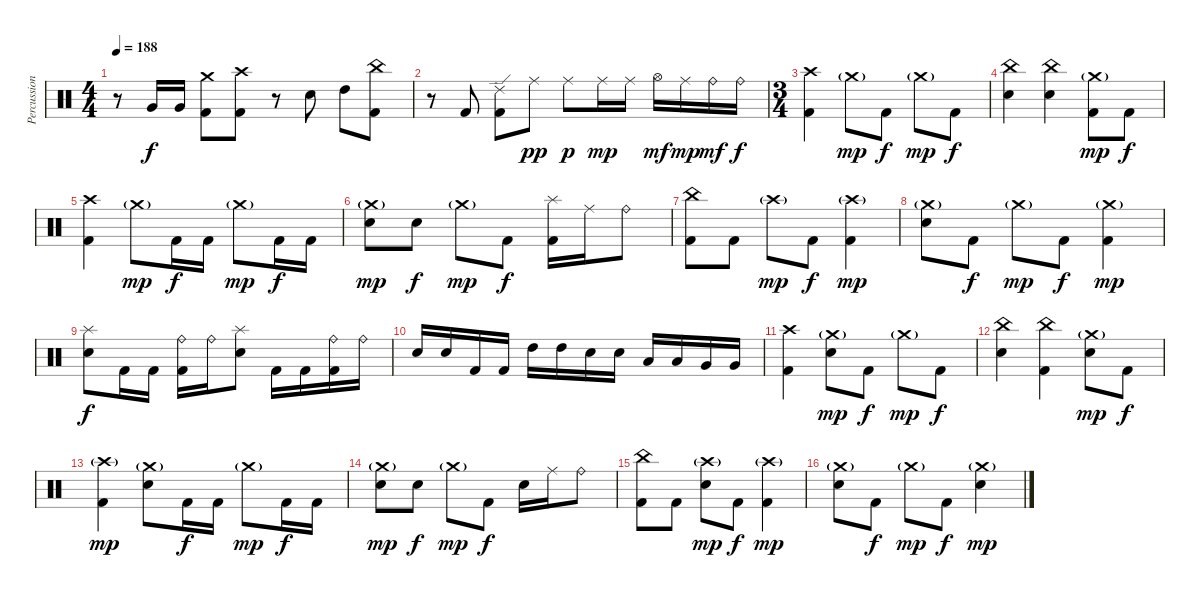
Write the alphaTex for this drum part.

\track ("Percussion" "Percussion") {instrument percussion}
\staff {score}
\articulation defaults
\ts (4 4)
\tempo 188
\clef neutral
\ks c
r.8{dy f} "Very Low Tom (hit)".16 "Very Low Tom (hit)".16 ("Crash medium (hit)" "Kick (hit) 2").8 ("Crash high (hit)" "Kick (hit) 2").8 r.8 "Electric Snare (hit)".8 "High Tom (hit)".8 ("China (hit)" "Kick (hit) 2").8 |
r.8 "Kick (hit) 2".8 ("Ride (edge) 2" "Kick (hit) 2").8 "Ride (middle)".8{dy pp} "Ride (middle)".8{dy p} "Ride (middle)".16{dy mp} "Ride (middle)".16 "Hi-Hat (open)".16{dy mf} "Ride (middle)".16{dy mp} "Ride (bell)".16{dy mf} "Ride (bell)".16{dy f} |
\ts (3 4)
("Crash high (hit)" "Kick (hit) 2").4 "Crash medium (hit)"{g}.8{dy mp} "Kick (hit) 2".8{dy f} "Crash medium (hit)"{g}.8{dy mp} "Kick (hit) 2".8{dy f} |
("China (hit)" "Electric Snare (hit)").4 ("China (hit)" "Electric Snare (hit)").4 ("Crash medium (hit)"{g} "Kick (hit) 2").8{dy mp} "Kick (hit) 2".8{dy f} |
("Crash high (hit)" "Kick (hit) 2").4 "Crash medium (hit)"{g}.8{dy mp} "Kick (hit) 2".16{dy f} "Kick (hit) 2".16 "Crash medium (hit)"{g}.8{dy mp} "Kick (hit) 2".16{dy f} "Kick (hit) 2".16 |
("Crash medium (hit)"{g} "Electric Snare (hit)").8{dy mp} "Electric Snare (hit)".8{dy f} "Crash medium (hit)"{g}.8{dy mp} "Kick (hit) 2".8{dy f} ("Splash (hit)" "Kick (hit) 2").16 "Ride (middle)".16 "Ride (bell)".8 |
("China (hit)" "Kick (hit) 2").8 "Kick (hit) 2".8 "Crash high (hit)"{g}.8{dy mp} "Kick (hit) 2".8{dy f} ("Crash high (hit)"{g} "Kick (hit) 2").4{dy mp} |
("Crash medium (hit)"{g} "Electric Snare (hit)").8 "Kick (hit) 2".8{dy f} "Crash medium (hit)"{g}.8{dy mp} "Kick (hit) 2".8{dy f} ("Crash medium (hit)"{g} "Kick (hit) 2").4{dy mp} |
("Splash (hit)" "Electric Snare (hit)").8{dy f} "Kick (hit) 2".16 "Kick (hit) 2".16 ("Ride (bell)" "Kick (hit) 2").16 "Ride (bell)".16 ("Splash (hit)" "Electric Snare (hit)").8 "Kick (hit) 2".16 "Kick (hit) 2".16 ("Ride (bell)" "Kick (hit) 2").16 "Ride (bell)".16 |
"Electric Snare (hit)".16 "Electric Snare (hit)".16 "Kick (hit) 2".16 "Kick (hit) 2".16 "High Tom (hit)".16 "High Tom (hit)".16 "Electric Snare (hit)".16 "Electric Snare (hit)".16 "Low Tom (hit)".16 "Low Tom (hit)".16 "Very Low Tom (hit)".16 "Very Low Tom (hit)".16 |
("Crash high (hit)" "Kick (hit) 2").4 ("Crash medium (hit)"{g} "Electric Snare (hit)").8{dy mp} "Kick (hit) 2".8{dy f} "Crash medium (hit)"{g}.8{dy mp} "Kick (hit) 2".8{dy f} |
("China (hit)" "Electric Snare (hit)").4 ("China (hit)" "Kick (hit) 2").4 ("Crash medium (hit)"{g} "Electric Snare (hit)").8{dy mp} "Kick (hit) 2".8{dy f} |
("Crash high (hit)"{g} "Kick (hit) 2").4{dy mp} ("Crash medium (hit)"{g} "Electric Snare (hit)").8 "Kick (hit) 2".16{dy f} "Kick (hit) 2".16 "Crash medium (hit)"{g}.8{dy mp} "Kick (hit) 2".16{dy f} "Kick (hit) 2".16 |
("Crash medium (hit)"{g} "Electric Snare (hit)").8{dy mp} "Electric Snare (hit)".8{dy f} "Crash medium (hit)"{g}.8{dy mp} "Kick (hit) 2".8{dy f} "Electric Snare (hit)".16 "Ride (middle)".16 "Ride (bell)".8 |
("China (hit)" "Kick (hit) 2").8 "Kick (hit) 2".8 ("Crash high (hit)"{g} "Electric Snare (hit)").8{dy mp} "Kick (hit) 2".8{dy f} ("Crash high (hit)"{g} "Kick (hit) 2").4{dy mp} |
("Crash medium (hit)"{g} "Electric Snare (hit)").8 "Kick (hit) 2".8{dy f} "Crash medium (hit)"{g}.8{dy mp} "Kick (hit) 2".8{dy f} ("Crash medium (hit)"{g} "Electric Snare (hit)").4{dy mp}
